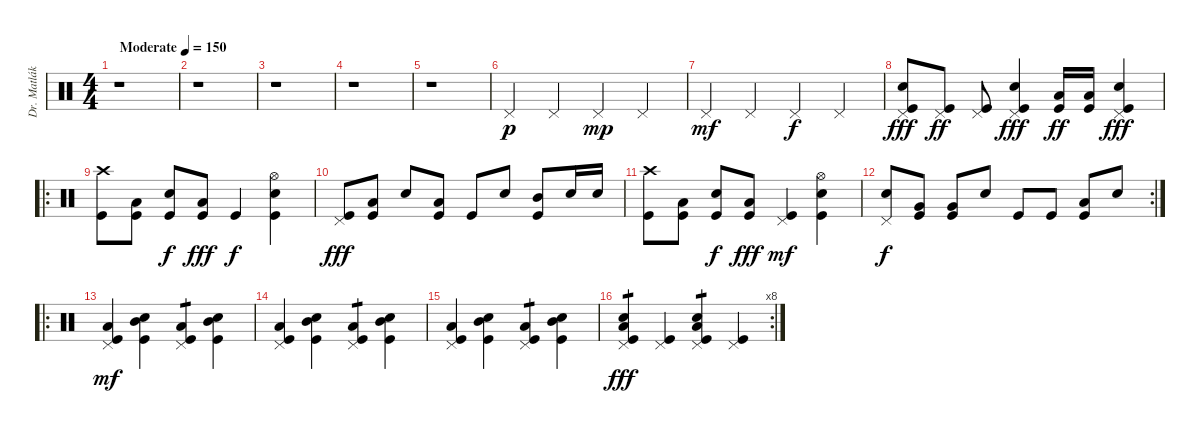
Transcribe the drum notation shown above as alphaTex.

\track ("Dr. Matlák" "Dr. Matlák") {instrument percussion}
\staff {score}
\articulation defaults
\ts (4 4)
\tempo (150 "Moderate")
\clef neutral
\ks c
r.1{dy p} |
r.1 |
r.1 |
r.1 |
r.1 |
"Pedal Hi-Hat (hit)".4 "Pedal Hi-Hat (hit)".4 "Pedal Hi-Hat (hit)".4{dy mp} "Pedal Hi-Hat (hit)".4 |
"Pedal Hi-Hat (hit)".4{dy mf} "Pedal Hi-Hat (hit)".4 "Pedal Hi-Hat (hit)".4{dy f} "Pedal Hi-Hat (hit)".4 |
("Electric Snare (hit)" "Pedal Hi-Hat (hit)" "Kick (hit)").8{dy fff} ("Pedal Hi-Hat (hit)" "Kick (hit)").8{dy ff} ("Pedal Hi-Hat (hit)" "Kick (hit)").8 ("Electric Snare (hit)" "Pedal Hi-Hat (hit)" "Kick (hit)").4{dy fff} ("Low Tom (hit)" "Kick (hit)").16{dy ff} ("Low Tom (hit)" "Kick (hit)").16 ("Electric Snare (hit)" "Pedal Hi-Hat (hit)" "Kick (hit)").4{dy fff} |
\ro
("Crash high (hit)" "Kick (hit)").8 ("Low Tom (hit)" "Kick (hit)").8 ("Electric Snare (hit)" "Kick (hit)").8{dy f} ("Low Tom (hit)" "Kick (hit)").8{dy fff} "Kick (hit)".4{dy f} ("Hi-Hat (open)" "Electric Snare (hit)" "Kick (hit)").4 |
("Pedal Hi-Hat (hit)" "Kick (hit)").8{dy fff} ("Low Tom (hit)" "Kick (hit)").8 "Electric Snare (hit)".8 ("Low Tom (hit)" "Kick (hit)").8 "Kick (hit)".8 "Electric Snare (hit)".8 ("Mid Tom (hit)" "Kick (hit)").8 "Electric Snare (hit)".16 "Electric Snare (hit)".16 |
("Crash high (hit)" "Kick (hit)").8 ("Low Tom (hit)" "Kick (hit)").8 ("Electric Snare (hit)" "Kick (hit)").8{dy f} ("Low Tom (hit)" "Kick (hit)").8{dy fff} ("Pedal Hi-Hat (hit)" "Kick (hit)").4{dy mf} ("Hi-Hat (open)" "Electric Snare (hit)" "Kick (hit)").4 |
\rc 2
("Pedal Hi-Hat (hit)" "Electric Snare (hit)").8{dy f} ("Very Low Tom (hit)" "Kick (hit)").8 ("Very Low Tom (hit)" "Kick (hit)").8 "Electric Snare (hit)".8 "Kick (hit)".8 "Kick (hit)".8 ("Low Tom (hit)" "Kick (hit)").8 "Electric Snare (hit)".8 |
\ro
("Pedal Hi-Hat (hit)" "Low Tom (hit)" "Kick (hit)").4{dy mf} ("Electric Snare (hit)" "Mid Tom (hit)" "Kick (hit)").4 ("Pedal Hi-Hat (hit)" "Low Tom (hit)" "Kick (hit)").4{tp 1} ("Electric Snare (hit)" "Mid Tom (hit)" "Kick (hit)").4 |
("Pedal Hi-Hat (hit)" "Low Tom (hit)" "Kick (hit)").4 ("Electric Snare (hit)" "Mid Tom (hit)" "Kick (hit)").4 ("Pedal Hi-Hat (hit)" "Low Tom (hit)" "Kick (hit)").4{tp 1} ("Electric Snare (hit)" "Mid Tom (hit)" "Kick (hit)").4 |
("Pedal Hi-Hat (hit)" "Low Tom (hit)" "Kick (hit)").4 ("Electric Snare (hit)" "Mid Tom (hit)" "Kick (hit)").4 ("Pedal Hi-Hat (hit)" "Low Tom (hit)" "Kick (hit)").4{tp 1} ("Electric Snare (hit)" "Mid Tom (hit)" "Kick (hit)").4 |
\rc 8
("Electric Snare (hit)" "Pedal Hi-Hat (hit)" "Low Tom (hit)" "Kick (hit)").4{tp 1 dy fff} ("Pedal Hi-Hat (hit)" "Kick (hit)").4 ("Electric Snare (hit)" "Pedal Hi-Hat (hit)" "Low Tom (hit)" "Kick (hit)").4{tp 1} ("Pedal Hi-Hat (hit)" "Kick (hit)").4
